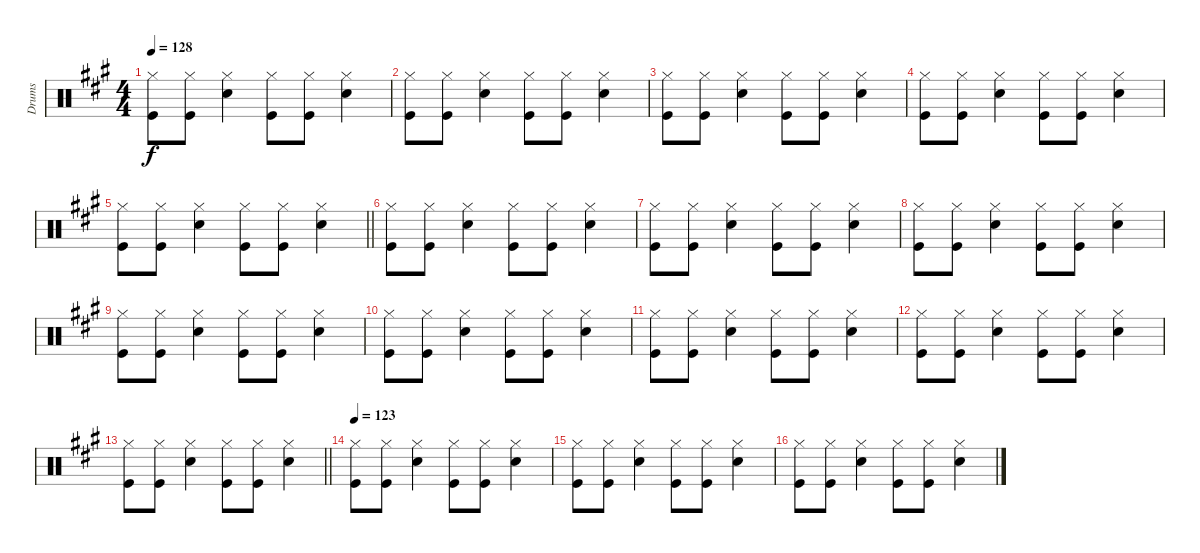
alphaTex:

\track ("Drums" "Drums") {instrument percussion}
\staff {score}
\articulation defaults
\ts (4 4)
\tempo 128
\clef neutral
\ks a
("Hi-Hat (closed)" "Kick (hit)").8{dy f} ("Hi-Hat (closed)" "Kick (hit)").8 ("Hi-Hat (closed)" "Snare (hit) 2").4 ("Hi-Hat (closed)" "Kick (hit)").8 ("Hi-Hat (closed)" "Kick (hit)").8 ("Hi-Hat (closed)" "Snare (hit) 2").4 |
("Hi-Hat (closed)" "Kick (hit)").8 ("Hi-Hat (closed)" "Kick (hit)").8 ("Hi-Hat (closed)" "Snare (hit) 2").4 ("Hi-Hat (closed)" "Kick (hit)").8 ("Hi-Hat (closed)" "Kick (hit)").8 ("Hi-Hat (closed)" "Snare (hit) 2").4 |
("Hi-Hat (closed)" "Kick (hit)").8 ("Hi-Hat (closed)" "Kick (hit)").8 ("Hi-Hat (closed)" "Snare (hit) 2").4 ("Hi-Hat (closed)" "Kick (hit)").8 ("Hi-Hat (closed)" "Kick (hit)").8 ("Hi-Hat (closed)" "Snare (hit) 2").4 |
("Hi-Hat (closed)" "Kick (hit)").8 ("Hi-Hat (closed)" "Kick (hit)").8 ("Hi-Hat (closed)" "Snare (hit) 2").4 ("Hi-Hat (closed)" "Kick (hit)").8 ("Hi-Hat (closed)" "Kick (hit)").8 ("Hi-Hat (closed)" "Snare (hit) 2").4 |
\barLineRight lightlight
("Hi-Hat (closed)" "Kick (hit)").8 ("Hi-Hat (closed)" "Kick (hit)").8 ("Hi-Hat (closed)" "Snare (hit) 2").4 ("Hi-Hat (closed)" "Kick (hit)").8 ("Hi-Hat (closed)" "Kick (hit)").8 ("Hi-Hat (closed)" "Snare (hit) 2").4 |
("Hi-Hat (closed)" "Kick (hit)").8 ("Hi-Hat (closed)" "Kick (hit)").8 ("Hi-Hat (closed)" "Snare (hit) 2").4 ("Hi-Hat (closed)" "Kick (hit)").8 ("Hi-Hat (closed)" "Kick (hit)").8 ("Hi-Hat (closed)" "Snare (hit) 2").4 |
("Hi-Hat (closed)" "Kick (hit)").8 ("Hi-Hat (closed)" "Kick (hit)").8 ("Hi-Hat (closed)" "Snare (hit) 2").4 ("Hi-Hat (closed)" "Kick (hit)").8 ("Hi-Hat (closed)" "Kick (hit)").8 ("Hi-Hat (closed)" "Snare (hit) 2").4 |
("Hi-Hat (closed)" "Kick (hit)").8 ("Hi-Hat (closed)" "Kick (hit)").8 ("Hi-Hat (closed)" "Snare (hit) 2").4 ("Hi-Hat (closed)" "Kick (hit)").8 ("Hi-Hat (closed)" "Kick (hit)").8 ("Hi-Hat (closed)" "Snare (hit) 2").4 |
("Hi-Hat (closed)" "Kick (hit)").8 ("Hi-Hat (closed)" "Kick (hit)").8 ("Hi-Hat (closed)" "Snare (hit) 2").4 ("Hi-Hat (closed)" "Kick (hit)").8 ("Hi-Hat (closed)" "Kick (hit)").8 ("Hi-Hat (closed)" "Snare (hit) 2").4 |
("Hi-Hat (closed)" "Kick (hit)").8 ("Hi-Hat (closed)" "Kick (hit)").8 ("Hi-Hat (closed)" "Snare (hit) 2").4 ("Hi-Hat (closed)" "Kick (hit)").8 ("Hi-Hat (closed)" "Kick (hit)").8 ("Hi-Hat (closed)" "Snare (hit) 2").4 |
("Hi-Hat (closed)" "Kick (hit)").8 ("Hi-Hat (closed)" "Kick (hit)").8 ("Hi-Hat (closed)" "Snare (hit) 2").4 ("Hi-Hat (closed)" "Kick (hit)").8 ("Hi-Hat (closed)" "Kick (hit)").8 ("Hi-Hat (closed)" "Snare (hit) 2").4 |
("Hi-Hat (closed)" "Kick (hit)").8 ("Hi-Hat (closed)" "Kick (hit)").8 ("Hi-Hat (closed)" "Snare (hit) 2").4 ("Hi-Hat (closed)" "Kick (hit)").8 ("Hi-Hat (closed)" "Kick (hit)").8 ("Hi-Hat (closed)" "Snare (hit) 2").4 |
\barLineRight lightlight
("Hi-Hat (closed)" "Kick (hit)").8 ("Hi-Hat (closed)" "Kick (hit)").8 ("Hi-Hat (closed)" "Snare (hit) 2").4 ("Hi-Hat (closed)" "Kick (hit)").8 ("Hi-Hat (closed)" "Kick (hit)").8 ("Hi-Hat (closed)" "Snare (hit) 2").4 |
\tempo 123
("Hi-Hat (closed)" "Kick (hit)").8 ("Hi-Hat (closed)" "Kick (hit)").8 ("Hi-Hat (closed)" "Snare (hit) 2").4 ("Hi-Hat (closed)" "Kick (hit)").8 ("Hi-Hat (closed)" "Kick (hit)").8 ("Hi-Hat (closed)" "Snare (hit) 2").4 |
("Hi-Hat (closed)" "Kick (hit)").8 ("Hi-Hat (closed)" "Kick (hit)").8 ("Hi-Hat (closed)" "Snare (hit) 2").4 ("Hi-Hat (closed)" "Kick (hit)").8 ("Hi-Hat (closed)" "Kick (hit)").8 ("Hi-Hat (closed)" "Snare (hit) 2").4 |
("Hi-Hat (closed)" "Kick (hit)").8 ("Hi-Hat (closed)" "Kick (hit)").8 ("Hi-Hat (closed)" "Snare (hit) 2").4 ("Hi-Hat (closed)" "Kick (hit)").8 ("Hi-Hat (closed)" "Kick (hit)").8 ("Hi-Hat (closed)" "Snare (hit) 2").4
